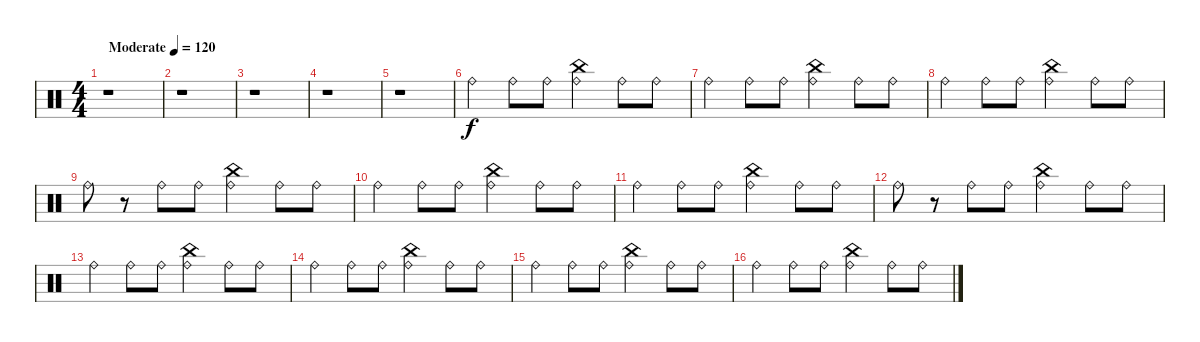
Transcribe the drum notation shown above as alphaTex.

\track "" {instrument percussion}
\staff {score}
\articulation defaults
\ts (4 4)
\tempo (120 "Moderate")
\clef neutral
\ks c
r.1{dy f} |
r.1 |
r.1 |
r.1 |
r.1 |
"Ride (bell)".4 "Ride (bell)".8 "Ride (bell)".8 ("Ride (bell)" "China (hit)").4 "Ride (bell)".8 "Ride (bell)".8 |
"Ride (bell)".4 "Ride (bell)".8 "Ride (bell)".8 ("Ride (bell)" "China (hit)").4 "Ride (bell)".8 "Ride (bell)".8 |
"Ride (bell)".4 "Ride (bell)".8 "Ride (bell)".8 ("Ride (bell)" "China (hit)").4 "Ride (bell)".8 "Ride (bell)".8 |
"Ride (bell)".8 r.8 "Ride (bell)".8 "Ride (bell)".8 ("Ride (bell)" "China (hit)").4 "Ride (bell)".8 "Ride (bell)".8 |
"Ride (bell)".4 "Ride (bell)".8 "Ride (bell)".8 ("Ride (bell)" "China (hit)").4 "Ride (bell)".8 "Ride (bell)".8 |
"Ride (bell)".4 "Ride (bell)".8 "Ride (bell)".8 ("Ride (bell)" "China (hit)").4 "Ride (bell)".8 "Ride (bell)".8 |
"Ride (bell)".8 r.8 "Ride (bell)".8 "Ride (bell)".8 ("Ride (bell)" "China (hit)").4 "Ride (bell)".8 "Ride (bell)".8 |
"Ride (bell)".4 "Ride (bell)".8 "Ride (bell)".8 ("Ride (bell)" "China (hit)").4 "Ride (bell)".8 "Ride (bell)".8 |
"Ride (bell)".4 "Ride (bell)".8 "Ride (bell)".8 ("Ride (bell)" "China (hit)").4 "Ride (bell)".8 "Ride (bell)".8 |
"Ride (bell)".4 "Ride (bell)".8 "Ride (bell)".8 ("Ride (bell)" "China (hit)").4 "Ride (bell)".8 "Ride (bell)".8 |
"Ride (bell)".4 "Ride (bell)".8 "Ride (bell)".8 ("Ride (bell)" "China (hit)").4 "Ride (bell)".8 "Ride (bell)".8
